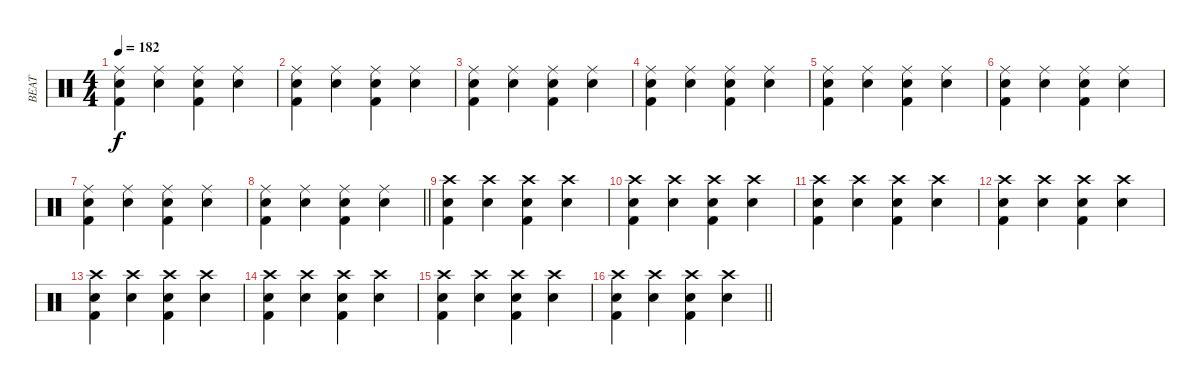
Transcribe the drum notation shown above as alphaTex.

\track ("BEAT" "BEAT") {instrument percussion}
\staff {score}
\articulation defaults
\ts (4 4)
\tempo 182
\clef neutral
\ks c
("Ride (middle)" "Electric Snare (hit)" "Kick (hit) 2").4{dy f volume 9} ("Ride (middle)" "Electric Snare (hit)").4 ("Ride (middle)" "Electric Snare (hit)" "Kick (hit) 2").4 ("Ride (middle)" "Electric Snare (hit)").4 |
("Ride (middle)" "Electric Snare (hit)" "Kick (hit) 2").4 ("Ride (middle)" "Electric Snare (hit)").4 ("Ride (middle)" "Electric Snare (hit)" "Kick (hit) 2").4 ("Ride (middle)" "Electric Snare (hit)").4 |
("Ride (middle)" "Electric Snare (hit)" "Kick (hit) 2").4 ("Ride (middle)" "Electric Snare (hit)").4 ("Ride (middle)" "Electric Snare (hit)" "Kick (hit) 2").4 ("Ride (middle)" "Electric Snare (hit)").4 |
("Ride (middle)" "Electric Snare (hit)" "Kick (hit) 2").4 ("Ride (middle)" "Electric Snare (hit)").4 ("Ride (middle)" "Electric Snare (hit)" "Kick (hit) 2").4 ("Ride (middle)" "Electric Snare (hit)").4 |
("Ride (middle)" "Electric Snare (hit)" "Kick (hit) 2").4{volume 11} ("Ride (middle)" "Electric Snare (hit)").4 ("Ride (middle)" "Electric Snare (hit)" "Kick (hit) 2").4 ("Ride (middle)" "Electric Snare (hit)").4 |
("Ride (middle)" "Electric Snare (hit)" "Kick (hit) 2").4 ("Ride (middle)" "Electric Snare (hit)").4 ("Ride (middle)" "Electric Snare (hit)" "Kick (hit) 2").4 ("Ride (middle)" "Electric Snare (hit)").4 |
("Ride (middle)" "Electric Snare (hit)" "Kick (hit) 2").4 ("Ride (middle)" "Electric Snare (hit)").4 ("Ride (middle)" "Electric Snare (hit)" "Kick (hit) 2").4 ("Ride (middle)" "Electric Snare (hit)").4 |
\barLineRight lightlight
("Ride (middle)" "Electric Snare (hit)" "Kick (hit) 2").4 ("Ride (middle)" "Electric Snare (hit)").4 ("Ride (middle)" "Electric Snare (hit)" "Kick (hit) 2").4 ("Ride (middle)" "Electric Snare (hit)").4 |
("Crash high (hit)" "Electric Snare (hit)" "Kick (hit) 2").4{volume 13} ("Crash high (hit)" "Electric Snare (hit)").4 ("Crash high (hit)" "Electric Snare (hit)" "Kick (hit) 2").4 ("Crash high (hit)" "Electric Snare (hit)").4 |
("Crash high (hit)" "Electric Snare (hit)" "Kick (hit) 2").4 ("Crash high (hit)" "Electric Snare (hit)").4 ("Crash high (hit)" "Electric Snare (hit)" "Kick (hit) 2").4 ("Crash high (hit)" "Electric Snare (hit)").4 |
("Crash high (hit)" "Electric Snare (hit)" "Kick (hit) 2").4 ("Crash high (hit)" "Electric Snare (hit)").4 ("Crash high (hit)" "Electric Snare (hit)" "Kick (hit) 2").4 ("Crash high (hit)" "Electric Snare (hit)").4 |
("Crash high (hit)" "Electric Snare (hit)" "Kick (hit) 2").4 ("Crash high (hit)" "Electric Snare (hit)").4 ("Crash high (hit)" "Electric Snare (hit)" "Kick (hit) 2").4 ("Crash high (hit)" "Electric Snare (hit)").4 |
("Crash high (hit)" "Electric Snare (hit)" "Kick (hit) 2").4{volume 16} ("Crash high (hit)" "Electric Snare (hit)").4 ("Crash high (hit)" "Electric Snare (hit)" "Kick (hit) 2").4 ("Crash high (hit)" "Electric Snare (hit)").4 |
("Crash high (hit)" "Electric Snare (hit)" "Kick (hit) 2").4 ("Crash high (hit)" "Electric Snare (hit)").4 ("Crash high (hit)" "Electric Snare (hit)" "Kick (hit) 2").4 ("Crash high (hit)" "Electric Snare (hit)").4 |
("Crash high (hit)" "Electric Snare (hit)" "Kick (hit) 2").4 ("Crash high (hit)" "Electric Snare (hit)").4 ("Crash high (hit)" "Electric Snare (hit)" "Kick (hit) 2").4 ("Crash high (hit)" "Electric Snare (hit)").4 |
\barLineRight lightlight
("Crash high (hit)" "Electric Snare (hit)" "Kick (hit) 2").4 ("Crash high (hit)" "Electric Snare (hit)").4 ("Crash high (hit)" "Electric Snare (hit)" "Kick (hit) 2").4 ("Crash high (hit)" "Electric Snare (hit)").4
